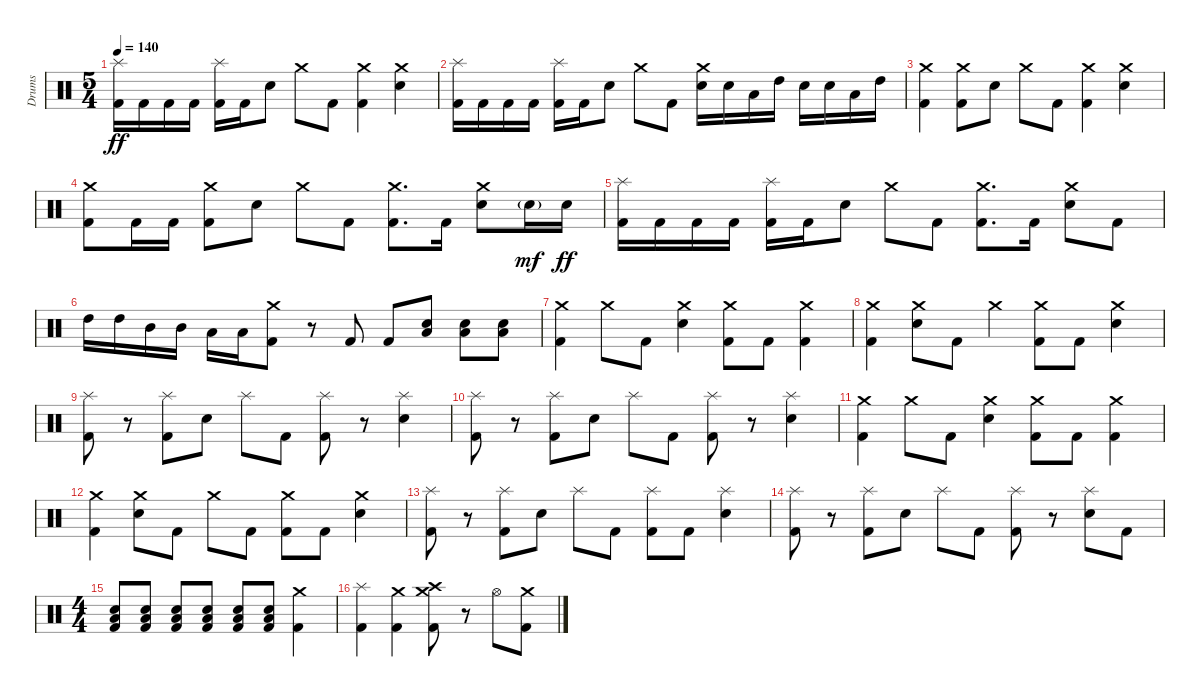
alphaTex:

\track ("Drums" "Drums") {instrument percussion}
\staff {score}
\articulation defaults
\ts (5 4)
\tempo 140
\clef neutral
\ks c
("Splash (hit)" "Kick (hit) 2").16{dy ff} "Kick (hit) 2".16 "Kick (hit) 2".16 "Kick (hit) 2".16 ("Splash (hit)" "Kick (hit) 2").16 "Kick (hit) 2".16 "Electric Snare (hit)".8 "Crash medium (hit)".8 "Kick (hit) 2".8 ("Crash medium (hit)" "Kick (hit) 2").4 ("Crash medium (hit)" "Electric Snare (hit)").4 |
("Splash (hit)" "Kick (hit) 2").16 "Kick (hit) 2".16 "Kick (hit) 2".16 "Kick (hit) 2".16 ("Splash (hit)" "Kick (hit) 2").16 "Kick (hit) 2".16 "Electric Snare (hit)".8 "Crash medium (hit)".8 "Kick (hit) 2".8 ("Crash medium (hit)" "Electric Snare (hit)").16 "Electric Snare (hit)".16 "Low Tom (hit)".16 "High Tom (hit)".16 "Electric Snare (hit)".16 "Electric Snare (hit)".16 "Low Tom (hit)".16 "High Tom (hit)".16 |
("Crash medium (hit)" "Kick (hit) 2").4 ("Crash medium (hit)" "Kick (hit) 2").8 "Electric Snare (hit)".8 "Crash medium (hit)".8 "Kick (hit) 2".8 ("Crash medium (hit)" "Kick (hit) 2").4 ("Crash medium (hit)" "Electric Snare (hit)").4 |
("Crash medium (hit)" "Kick (hit) 2").8 "Kick (hit) 2".16 "Kick (hit) 2".16 ("Crash medium (hit)" "Kick (hit) 2").8 "Electric Snare (hit)".8 "Crash medium (hit)".8 "Kick (hit) 2".8 ("Crash medium (hit)" "Kick (hit) 2").8{d} "Kick (hit) 2".16 ("Crash medium (hit)" "Electric Snare (hit)").8 "Electric Snare (hit)"{g}.16{dy mf} "Electric Snare (hit)".16{dy ff} |
("Splash (hit)" "Kick (hit) 2").16 "Kick (hit) 2".16 "Kick (hit) 2".16 "Kick (hit) 2".16 ("Splash (hit)" "Kick (hit) 2").16 "Kick (hit) 2".16 "Electric Snare (hit)".8 "Crash medium (hit)".8 "Kick (hit) 2".8 ("Crash medium (hit)" "Kick (hit) 2").8{d} "Kick (hit) 2".16 ("Crash medium (hit)" "Electric Snare (hit)").8 "Kick (hit) 2".8 |
"High Tom (hit)".16 "High Tom (hit)".16 "Mid Tom (hit)".16 "Mid Tom (hit)".16 "Low Tom (hit)".16 "Low Tom (hit)".16 ("Crash medium (hit)" "Kick (hit) 2").8 r.8 "Kick (hit) 2".8 "Kick (hit) 2".8 ("Low Floor Tom (hit)" "Electric Snare (hit)").8 ("Low Floor Tom (hit)" "Electric Snare (hit)").8 ("Low Floor Tom (hit)" "Electric Snare (hit)").8 |
("Crash medium (hit)" "Kick (hit) 2").4 "Crash medium (hit)".8 "Kick (hit) 2".8 ("Crash medium (hit)" "Electric Snare (hit)").4 ("Crash medium (hit)" "Kick (hit) 2").8 "Kick (hit) 2".8 ("Crash medium (hit)" "Kick (hit) 2").4 |
("Crash medium (hit)" "Kick (hit) 2").4 ("Crash medium (hit)" "Electric Snare (hit)").8 "Kick (hit) 2".8 "Crash medium (hit)".4 ("Crash medium (hit)" "Kick (hit) 2").8 "Kick (hit) 2".8 ("Crash medium (hit)" "Electric Snare (hit)").4 |
("Splash (hit)" "Kick (hit) 2").8 r.8 ("Splash (hit)" "Kick (hit) 2").8 "Electric Snare (hit)".8 "Splash (hit)".8 "Kick (hit) 2".8 ("Splash (hit)" "Kick (hit) 2").8 r.8 ("Splash (hit)" "Electric Snare (hit)").4 |
("Splash (hit)" "Kick (hit) 2").8 r.8 ("Splash (hit)" "Kick (hit) 2").8 "Electric Snare (hit)".8 "Splash (hit)".8 "Kick (hit) 2".8 ("Splash (hit)" "Kick (hit) 2").8 r.8 ("Splash (hit)" "Electric Snare (hit)").4 |
("Crash medium (hit)" "Kick (hit) 2").4 "Crash medium (hit)".8 "Kick (hit) 2".8 ("Crash medium (hit)" "Electric Snare (hit)").4 ("Crash medium (hit)" "Kick (hit) 2").8 "Kick (hit) 2".8 ("Crash medium (hit)" "Kick (hit) 2").4 |
("Crash medium (hit)" "Kick (hit) 2").4 ("Crash medium (hit)" "Electric Snare (hit)").8 "Kick (hit) 2".8 "Crash medium (hit)".8 "Kick (hit) 2".8 ("Crash medium (hit)" "Kick (hit) 2").8 "Kick (hit) 2".8 ("Crash medium (hit)" "Electric Snare (hit)").4 |
("Splash (hit)" "Kick (hit) 2").8 r.8 ("Splash (hit)" "Kick (hit) 2").8 "Electric Snare (hit)".8 "Splash (hit)".8 "Kick (hit) 2".8 ("Splash (hit)" "Kick (hit) 2").8 "Kick (hit) 2".8 ("Splash (hit)" "Electric Snare (hit)").4 |
("Splash (hit)" "Kick (hit) 2").8 r.8 ("Splash (hit)" "Kick (hit) 2").8 "Electric Snare (hit)".8 "Splash (hit)".8 "Kick (hit) 2".8 ("Splash (hit)" "Kick (hit) 2").8 r.8 ("Splash (hit)" "Electric Snare (hit)").8 "Kick (hit) 2".8 |
\ts (4 4)
("Low Tom (hit)" "Electric Snare (hit)" "Kick (hit) 2").8 ("Low Tom (hit)" "Electric Snare (hit)" "Kick (hit) 2").8 ("Low Floor Tom (hit)" "Electric Snare (hit)" "Kick (hit) 2").8 ("Low Floor Tom (hit)" "Electric Snare (hit)" "Kick (hit) 2").8 ("Low Floor Tom (hit)" "Electric Snare (hit)" "Kick (hit) 2").8 ("Low Floor Tom (hit)" "Electric Snare (hit)" "Kick (hit) 2").8 ("Crash medium (hit)" "Kick (hit) 2").4 |
("Splash (hit)" "Kick (hit) 2").4 ("Crash medium (hit)" "Kick (hit) 2").4 ("Crash medium (hit)" "Crash high (hit)" "Kick (hit) 2").8 r.8 "Hi-Hat (open)".8 ("Crash medium (hit)" "Kick (hit) 2").8
